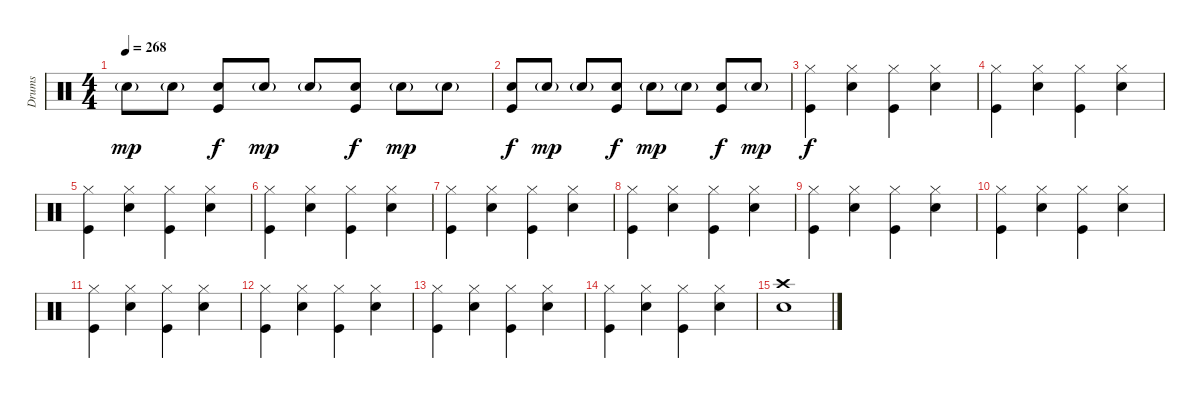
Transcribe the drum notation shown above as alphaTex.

\track ("Drums" "Drums") {instrument percussion}
\staff {score}
\articulation defaults
\ts (4 4)
\tempo 268
\clef neutral
\ks c "Electric Snare (hit)"{g}.8{dy mp} "Electric Snare (hit)"{g}.8
("Electric Snare (hit)" "Kick (hit)").8{dy f} "Electric Snare (hit)"{g}.8{dy mp} "Electric Snare (hit)"{g}.8 ("Electric Snare (hit)" "Kick (hit)").8{dy f} "Electric Snare (hit)"{g}.8{dy mp} "Electric Snare (hit)"{g}.8 |
("Electric Snare (hit)" "Kick (hit)").8{dy f} "Electric Snare (hit)"{g}.8{dy mp} "Electric Snare (hit)"{g}.8 ("Electric Snare (hit)" "Kick (hit)").8{dy f} "Electric Snare (hit)"{g}.8{dy mp} "Electric Snare (hit)"{g}.8 ("Electric Snare (hit)" "Kick (hit)").8{dy f} "Electric Snare (hit)"{g}.8{dy mp} |
("Hi-Hat (closed)" "Kick (hit)").4{dy f} ("Hi-Hat (closed)" "Electric Snare (hit)").4 ("Hi-Hat (closed)" "Kick (hit)").4 ("Hi-Hat (closed)" "Electric Snare (hit)").4 |
("Hi-Hat (closed)" "Kick (hit)").4 ("Hi-Hat (closed)" "Electric Snare (hit)").4 ("Hi-Hat (closed)" "Kick (hit)").4 ("Hi-Hat (closed)" "Electric Snare (hit)").4 |
("Hi-Hat (closed)" "Kick (hit)").4 ("Hi-Hat (closed)" "Electric Snare (hit)").4 ("Hi-Hat (closed)" "Kick (hit)").4 ("Hi-Hat (closed)" "Electric Snare (hit)").4 |
("Hi-Hat (closed)" "Kick (hit)").4 ("Hi-Hat (closed)" "Electric Snare (hit)").4 ("Hi-Hat (closed)" "Kick (hit)").4 ("Hi-Hat (closed)" "Electric Snare (hit)").4 |
("Hi-Hat (closed)" "Kick (hit)").4 ("Hi-Hat (closed)" "Electric Snare (hit)").4 ("Hi-Hat (closed)" "Kick (hit)").4 ("Hi-Hat (closed)" "Electric Snare (hit)").4 |
("Hi-Hat (closed)" "Kick (hit)").4 ("Hi-Hat (closed)" "Electric Snare (hit)").4 ("Hi-Hat (closed)" "Kick (hit)").4 ("Hi-Hat (closed)" "Electric Snare (hit)").4 |
("Hi-Hat (closed)" "Kick (hit)").4 ("Hi-Hat (closed)" "Electric Snare (hit)").4 ("Hi-Hat (closed)" "Kick (hit)").4 ("Hi-Hat (closed)" "Electric Snare (hit)").4 |
("Hi-Hat (closed)" "Kick (hit)").4 ("Hi-Hat (closed)" "Electric Snare (hit)").4 ("Hi-Hat (closed)" "Kick (hit)").4 ("Hi-Hat (closed)" "Electric Snare (hit)").4 |
("Hi-Hat (closed)" "Kick (hit)").4 ("Hi-Hat (closed)" "Electric Snare (hit)").4 ("Hi-Hat (closed)" "Kick (hit)").4 ("Hi-Hat (closed)" "Electric Snare (hit)").4 |
("Hi-Hat (closed)" "Kick (hit)").4 ("Hi-Hat (closed)" "Electric Snare (hit)").4 ("Hi-Hat (closed)" "Kick (hit)").4 ("Hi-Hat (closed)" "Electric Snare (hit)").4 |
("Hi-Hat (closed)" "Kick (hit)").4 ("Hi-Hat (closed)" "Electric Snare (hit)").4 ("Hi-Hat (closed)" "Kick (hit)").4 ("Hi-Hat (closed)" "Electric Snare (hit)").4 |
("Hi-Hat (closed)" "Kick (hit)").4 ("Hi-Hat (closed)" "Electric Snare (hit)").4 ("Hi-Hat (closed)" "Kick (hit)").4 ("Hi-Hat (closed)" "Electric Snare (hit)").4 |
("Crash high (hit)" "Electric Snare (hit)").1
